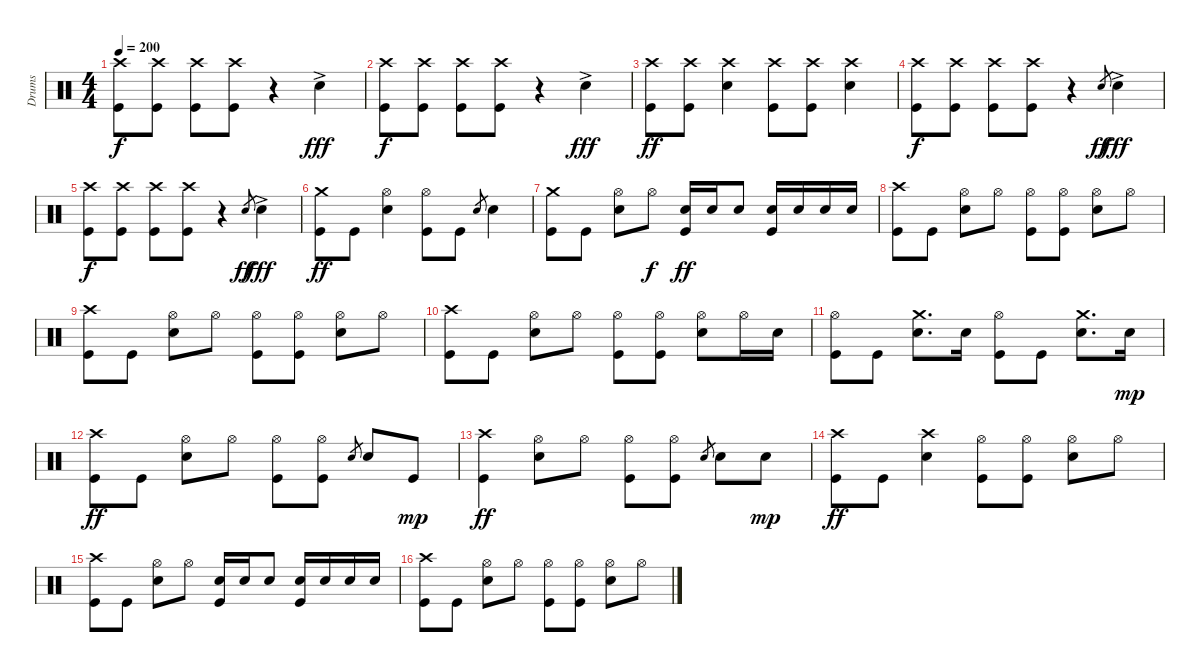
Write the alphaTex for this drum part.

\track ("Drums" "Drums") {instrument percussion}
\staff {score}
\articulation defaults
\ts (4 4)
\tempo 200
\clef neutral
\ks c
("Crash high (hit)" "Kick (hit)").8{dy f} ("Crash high (hit)" "Kick (hit)").8 ("Crash high (hit)" "Kick (hit)").8 ("Crash high (hit)" "Kick (hit)").8 r.4{volume 3} "Snare (hit) 2"{ac}.4{dy fff volume 13} |
("Crash high (hit)" "Kick (hit)").8{dy f} ("Crash high (hit)" "Kick (hit)").8 ("Crash high (hit)" "Kick (hit)").8 ("Crash high (hit)" "Kick (hit)").8 r.4{volume 3} "Snare (hit) 2"{ac}.4{dy fff volume 13} |
("Crash high (hit)" "Kick (hit)").8{dy ff} ("Crash high (hit)" "Kick (hit)").8 ("Crash high (hit)" "Snare (hit) 2").4 ("Crash high (hit)" "Kick (hit)").8 ("Crash high (hit)" "Kick (hit)").8 ("Crash high (hit)" "Snare (hit) 2").4 |
("Crash high (hit)" "Kick (hit)").8{dy f} ("Crash high (hit)" "Kick (hit)").8 ("Crash high (hit)" "Kick (hit)").8 ("Crash high (hit)" "Kick (hit)").8 r.4{volume 3} "Snare (hit) 2".8{gr dy ff} "Snare (hit) 2"{ac}.4{dy fff volume 13} |
("Crash high (hit)" "Kick (hit)").8{dy f} ("Crash high (hit)" "Kick (hit)").8 ("Crash high (hit)" "Kick (hit)").8 ("Crash high (hit)" "Kick (hit)").8 r.4{volume 3} "Snare (hit) 2".8{gr dy ff} "Snare (hit) 2"{ac}.4{dy fff volume 13} |
("Crash medium (hit)" "Kick (hit)").8{dy ff} "Kick (hit)".8 ("Hi-Hat (open)" "Snare (hit) 2").4 ("Hi-Hat (open)" "Kick (hit)").8 "Kick (hit)".8 "Snare (hit) 2".8{gr} "Snare (hit) 2".4 |
("Crash medium (hit)" "Kick (hit)").8 "Kick (hit)".8 ("Hi-Hat (open)" "Snare (hit) 2").8 "Hi-Hat (open)".8{dy f} ("Snare (hit) 2" "Kick (hit)").16{dy ff} "Snare (hit) 2".16 "Snare (hit) 2".8 ("Snare (hit) 2" "Kick (hit)").16 "Snare (hit) 2".16 "Snare (hit) 2".16 "Snare (hit) 2".16 |
("Crash high (hit)" "Kick (hit)").8 "Kick (hit)".8 ("Hi-Hat (open)" "Snare (hit) 2").8 "Hi-Hat (open)".8 ("Hi-Hat (open)" "Kick (hit)").8 ("Hi-Hat (open)" "Kick (hit)").8 ("Hi-Hat (open)" "Snare (hit) 2").8 "Hi-Hat (open)".8 |
("Crash high (hit)" "Kick (hit)").8 "Kick (hit)".8 ("Hi-Hat (open)" "Snare (hit) 2").8 "Hi-Hat (open)".8 ("Hi-Hat (open)" "Kick (hit)").8 ("Hi-Hat (open)" "Kick (hit)").8 ("Hi-Hat (open)" "Snare (hit) 2").8 "Hi-Hat (open)".8 |
("Crash high (hit)" "Kick (hit)").8 "Kick (hit)".8 ("Hi-Hat (open)" "Snare (hit) 2").8 "Hi-Hat (open)".8 ("Hi-Hat (open)" "Kick (hit)").8 ("Hi-Hat (open)" "Kick (hit)").8 ("Hi-Hat (open)" "Snare (hit) 2").8 "Hi-Hat (open)".16 "Snare (hit) 2".16 |
("Hi-Hat (open)" "Kick (hit)").8 "Kick (hit)".8 ("Crash medium (hit)" "Snare (hit) 2").8{d} "Snare (hit) 2".16 ("Hi-Hat (open)" "Kick (hit)").8 "Kick (hit)".8 ("Crash medium (hit)" "Snare (hit) 2").8{d} "Snare (hit) 2".16{dy mp} |
("Crash high (hit)" "Kick (hit)").8{dy ff} "Kick (hit)".8 ("Hi-Hat (open)" "Snare (hit) 2").8 "Hi-Hat (open)".8 ("Hi-Hat (open)" "Kick (hit)").8 ("Hi-Hat (open)" "Kick (hit)").8 "Snare (hit) 2".8{gr} "Snare (hit) 2".8 "Kick (hit)".8{dy mp} |
("Crash high (hit)" "Kick (hit)").4{dy ff} ("Hi-Hat (open)" "Snare (hit) 2").8 "Hi-Hat (open)".8 ("Hi-Hat (open)" "Kick (hit)").8 ("Hi-Hat (open)" "Kick (hit)").8 "Snare (hit) 2".8{gr} "Snare (hit) 2".8 "Snare (hit) 2".8{dy mp} |
("Crash high (hit)" "Kick (hit)").8{dy ff} "Kick (hit)".8 ("Crash high (hit)" "Snare (hit) 2").4 ("Hi-Hat (open)" "Kick (hit)").8 ("Hi-Hat (open)" "Kick (hit)").8 ("Hi-Hat (open)" "Snare (hit) 2").8 "Hi-Hat (open)".8 |
("Crash high (hit)" "Kick (hit)").8 "Kick (hit)".8 ("Hi-Hat (open)" "Snare (hit) 2").8 "Hi-Hat (open)".8 ("Snare (hit) 2" "Kick (hit)").16 "Snare (hit) 2".16 "Snare (hit) 2".8 ("Snare (hit) 2" "Kick (hit)").16 "Snare (hit) 2".16 "Snare (hit) 2".16 "Snare (hit) 2".16 |
("Crash high (hit)" "Kick (hit)").8 "Kick (hit)".8 ("Hi-Hat (open)" "Snare (hit) 2").8 "Hi-Hat (open)".8 ("Hi-Hat (open)" "Kick (hit)").8 ("Hi-Hat (open)" "Kick (hit)").8 ("Hi-Hat (open)" "Snare (hit) 2").8 "Hi-Hat (open)".8
